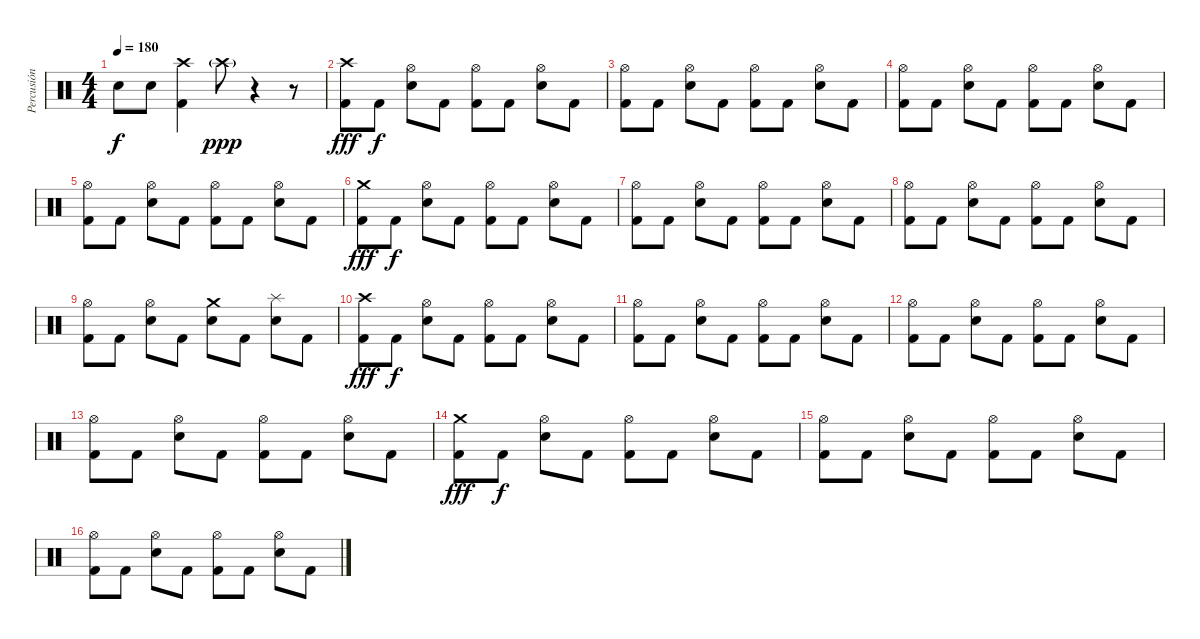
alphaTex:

\track ("Percusión" "Percusión") {instrument percussion}
\staff {score}
\articulation defaults
\ts (4 4)
\tempo 180
\clef neutral
\ks c "Electric Snare (hit)".8{dy f} "Electric Snare (hit)".8
("Crash high (hit)" "Kick (hit) 2").4 "Crash high (hit)"{g}.8{dy ppp} r.4 r.8 |
("Crash high (hit)" "Kick (hit) 2").8{dy fff} "Kick (hit) 2".8{dy f} ("Hi-Hat (open)" "Electric Snare (hit)").8 "Kick (hit) 2".8 ("Hi-Hat (open)" "Kick (hit) 2").8 "Kick (hit) 2".8 ("Hi-Hat (open)" "Electric Snare (hit)").8 "Kick (hit) 2".8 |
("Hi-Hat (open)" "Kick (hit) 2").8 "Kick (hit) 2".8 ("Hi-Hat (open)" "Electric Snare (hit)").8 "Kick (hit) 2".8 ("Hi-Hat (open)" "Kick (hit) 2").8 "Kick (hit) 2".8 ("Hi-Hat (open)" "Electric Snare (hit)").8 "Kick (hit) 2".8 |
("Hi-Hat (open)" "Kick (hit) 2").8 "Kick (hit) 2".8 ("Hi-Hat (open)" "Electric Snare (hit)").8 "Kick (hit) 2".8 ("Hi-Hat (open)" "Kick (hit) 2").8 "Kick (hit) 2".8 ("Hi-Hat (open)" "Electric Snare (hit)").8 "Kick (hit) 2".8 |
("Hi-Hat (open)" "Kick (hit) 2").8 "Kick (hit) 2".8 ("Hi-Hat (open)" "Electric Snare (hit)").8 "Kick (hit) 2".8 ("Hi-Hat (open)" "Kick (hit) 2").8 "Kick (hit) 2".8 ("Hi-Hat (open)" "Electric Snare (hit)").8 "Kick (hit) 2".8 |
("Crash medium (hit)" "Kick (hit) 2").8{dy fff} "Kick (hit) 2".8{dy f} ("Hi-Hat (open)" "Electric Snare (hit)").8 "Kick (hit) 2".8 ("Hi-Hat (open)" "Kick (hit) 2").8 "Kick (hit) 2".8 ("Hi-Hat (open)" "Electric Snare (hit)").8 "Kick (hit) 2".8 |
("Hi-Hat (open)" "Kick (hit) 2").8 "Kick (hit) 2".8 ("Hi-Hat (open)" "Electric Snare (hit)").8 "Kick (hit) 2".8 ("Hi-Hat (open)" "Kick (hit) 2").8 "Kick (hit) 2".8 ("Hi-Hat (open)" "Electric Snare (hit)").8 "Kick (hit) 2".8 |
("Hi-Hat (open)" "Kick (hit) 2").8 "Kick (hit) 2".8 ("Hi-Hat (open)" "Electric Snare (hit)").8 "Kick (hit) 2".8 ("Hi-Hat (open)" "Kick (hit) 2").8 "Kick (hit) 2".8 ("Hi-Hat (open)" "Electric Snare (hit)").8 "Kick (hit) 2".8 |
("Hi-Hat (open)" "Kick (hit) 2").8 "Kick (hit) 2".8 ("Hi-Hat (open)" "Electric Snare (hit)").8 "Kick (hit) 2".8 ("Crash medium (hit)" "Electric Snare (hit)").8 "Kick (hit) 2".8 ("Splash (hit)" "Electric Snare (hit)").8 "Kick (hit) 2".8 |
("Crash high (hit)" "Kick (hit) 2").8{dy fff} "Kick (hit) 2".8{dy f} ("Hi-Hat (open)" "Electric Snare (hit)").8 "Kick (hit) 2".8 ("Hi-Hat (open)" "Kick (hit) 2").8 "Kick (hit) 2".8 ("Hi-Hat (open)" "Electric Snare (hit)").8 "Kick (hit) 2".8 |
("Hi-Hat (open)" "Kick (hit) 2").8 "Kick (hit) 2".8 ("Hi-Hat (open)" "Electric Snare (hit)").8 "Kick (hit) 2".8 ("Hi-Hat (open)" "Kick (hit) 2").8 "Kick (hit) 2".8 ("Hi-Hat (open)" "Electric Snare (hit)").8 "Kick (hit) 2".8 |
("Hi-Hat (open)" "Kick (hit) 2").8 "Kick (hit) 2".8 ("Hi-Hat (open)" "Electric Snare (hit)").8 "Kick (hit) 2".8 ("Hi-Hat (open)" "Kick (hit) 2").8 "Kick (hit) 2".8 ("Hi-Hat (open)" "Electric Snare (hit)").8 "Kick (hit) 2".8 |
("Hi-Hat (open)" "Kick (hit) 2").8 "Kick (hit) 2".8 ("Hi-Hat (open)" "Electric Snare (hit)").8 "Kick (hit) 2".8 ("Hi-Hat (open)" "Kick (hit) 2").8 "Kick (hit) 2".8 ("Hi-Hat (open)" "Electric Snare (hit)").8 "Kick (hit) 2".8 |
("Crash medium (hit)" "Kick (hit) 2").8{dy fff} "Kick (hit) 2".8{dy f} ("Hi-Hat (open)" "Electric Snare (hit)").8 "Kick (hit) 2".8 ("Hi-Hat (open)" "Kick (hit) 2").8 "Kick (hit) 2".8 ("Hi-Hat (open)" "Electric Snare (hit)").8 "Kick (hit) 2".8 |
("Hi-Hat (open)" "Kick (hit) 2").8 "Kick (hit) 2".8 ("Hi-Hat (open)" "Electric Snare (hit)").8 "Kick (hit) 2".8 ("Hi-Hat (open)" "Kick (hit) 2").8 "Kick (hit) 2".8 ("Hi-Hat (open)" "Electric Snare (hit)").8 "Kick (hit) 2".8 |
("Hi-Hat (open)" "Kick (hit) 2").8 "Kick (hit) 2".8 ("Hi-Hat (open)" "Electric Snare (hit)").8 "Kick (hit) 2".8 ("Hi-Hat (open)" "Kick (hit) 2").8 "Kick (hit) 2".8 ("Hi-Hat (open)" "Electric Snare (hit)").8 "Kick (hit) 2".8
